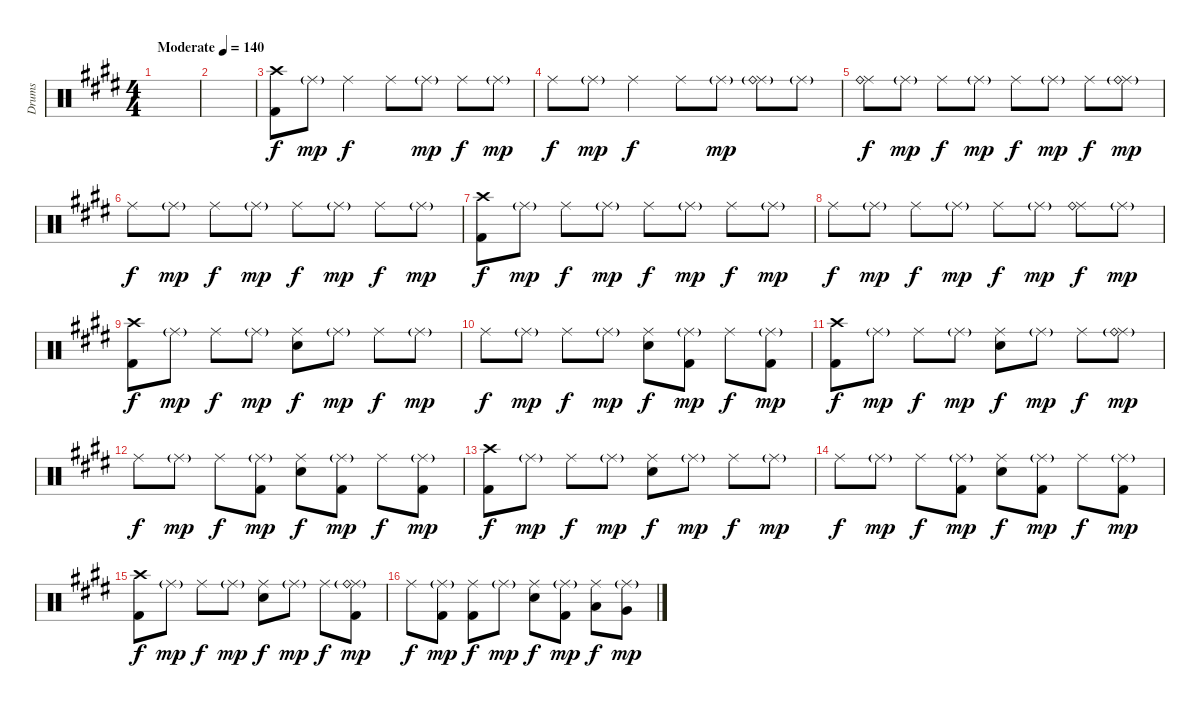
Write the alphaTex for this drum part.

\track ("Drums" "Drums") {instrument percussion}
\staff {score}
\articulation defaults
\ts (4 4)
\tempo (140 "Moderate")
\clef neutral
\ks e
|
|
("Crash high (hit)" "Kick (hit) 2").8 "Ride (middle)"{g}.8{dy mp} "Ride (middle)".4{dy f} "Ride (middle)".8 "Ride (middle)"{g}.8{dy mp} "Ride (middle)".8{dy f} "Ride (middle)"{g}.8{dy mp} |
"Ride (middle)".8{dy f} "Ride (middle)"{g}.8{dy mp} "Ride (middle)".4{dy f} "Ride (middle)".8 "Ride (middle)"{g}.8{dy mp} ("Ride (middle)" "Ride (bell)"{g}).8 "Ride (middle)"{g}.8 |
("Ride (middle)" "Ride (bell)").8{dy f} "Ride (middle)"{g}.8{dy mp} "Ride (middle)".8{dy f} "Ride (middle)"{g}.8{dy mp} "Ride (middle)".8{dy f} "Ride (middle)"{g}.8{dy mp} "Ride (middle)".8{dy f} ("Ride (middle)"{g} "Ride (bell)"{g}).8{dy mp} |
"Ride (middle)".8{dy f} "Ride (middle)"{g}.8{dy mp} "Ride (middle)".8{dy f} "Ride (middle)"{g}.8{dy mp} "Ride (middle)".8{dy f} "Ride (middle)"{g}.8{dy mp} "Ride (middle)".8{dy f} "Ride (middle)"{g}.8{dy mp} |
("Crash high (hit)" "Kick (hit) 2").8{dy f} "Ride (middle)"{g}.8{dy mp} "Ride (middle)".8{dy f} "Ride (middle)"{g}.8{dy mp} "Ride (middle)".8{dy f} "Ride (middle)"{g}.8{dy mp} "Ride (middle)".8{dy f} "Ride (middle)"{g}.8{dy mp} |
"Ride (middle)".8{dy f} "Ride (middle)"{g}.8{dy mp} "Ride (middle)".8{dy f} "Ride (middle)"{g}.8{dy mp} "Ride (middle)".8{dy f} "Ride (middle)"{g}.8{dy mp} ("Ride (middle)" "Ride (bell)").8{dy f} "Ride (middle)"{g}.8{dy mp} |
("Crash high (hit)" "Kick (hit) 2").8{dy f} "Ride (middle)"{g}.8{dy mp} "Ride (middle)".8{dy f} "Ride (middle)"{g}.8{dy mp} ("Ride (middle)" "Snare (hit) 2").8{dy f} "Ride (middle)"{g}.8{dy mp} "Ride (middle)".8{dy f} "Ride (middle)"{g}.8{dy mp} |
"Ride (middle)".8{dy f} "Ride (middle)"{g}.8{dy mp} "Ride (middle)".8{dy f} "Ride (middle)"{g}.8{dy mp} ("Ride (middle)" "Snare (hit) 2").8{dy f} ("Ride (middle)"{g} "Kick (hit) 2").8{dy mp} "Ride (middle)".8{dy f} ("Ride (middle)"{g} "Kick (hit) 2").8{dy mp} |
("Crash high (hit)" "Kick (hit) 2").8{dy f} "Ride (middle)"{g}.8{dy mp} "Ride (middle)".8{dy f} "Ride (middle)"{g}.8{dy mp} ("Ride (middle)" "Snare (hit) 2").8{dy f} "Ride (middle)"{g}.8{dy mp} "Ride (middle)".8{dy f} ("Ride (middle)"{g} "Ride (bell)"{g}).8{dy mp} |
"Ride (middle)".8{dy f} "Ride (middle)"{g}.8{dy mp} "Ride (middle)".8{dy f} ("Ride (middle)"{g} "Kick (hit) 2").8{dy mp} ("Ride (middle)" "Snare (hit) 2").8{dy f} ("Ride (middle)"{g} "Kick (hit) 2").8{dy mp} "Ride (middle)".8{dy f} ("Ride (middle)"{g} "Kick (hit) 2").8{dy mp} |
("Crash high (hit)" "Kick (hit) 2").8{dy f} "Ride (middle)"{g}.8{dy mp} "Ride (middle)".8{dy f} "Ride (middle)"{g}.8{dy mp} ("Ride (middle)" "Snare (hit) 2").8{dy f} "Ride (middle)"{g}.8{dy mp} "Ride (middle)".8{dy f} "Ride (middle)"{g}.8{dy mp} |
"Ride (middle)".8{dy f} "Ride (middle)"{g}.8{dy mp} "Ride (middle)".8{dy f} ("Ride (middle)"{g} "Kick (hit) 2").8{dy mp} ("Ride (middle)" "Snare (hit) 2").8{dy f} ("Ride (middle)"{g} "Kick (hit) 2").8{dy mp} "Ride (middle)".8{dy f} ("Ride (middle)"{g} "Kick (hit) 2").8{dy mp} |
("Crash high (hit)" "Kick (hit) 2").8{dy f} "Ride (middle)"{g}.8{dy mp} "Ride (middle)".8{dy f} "Ride (middle)"{g}.8{dy mp} ("Ride (middle)" "Snare (hit) 2").8{dy f} "Ride (middle)"{g}.8{dy mp} "Ride (middle)".8{dy f} ("Ride (middle)"{g} "Ride (bell)"{g} "Kick (hit) 2").8{dy mp} |
"Ride (middle)".8{dy f} ("Ride (middle)"{g} "Kick (hit) 2").8{dy mp} ("Ride (middle)" "Kick (hit) 2").8{dy f} "Ride (middle)"{g}.8{dy mp} ("Ride (middle)" "Snare (hit) 2").8{dy f} ("Ride (middle)"{g} "Kick (hit) 2").8{dy mp} ("Ride (middle)" "Low Tom (hit)").8{dy f} ("Ride (middle)"{g} "Very Low Tom (hit)").8{dy mp}
